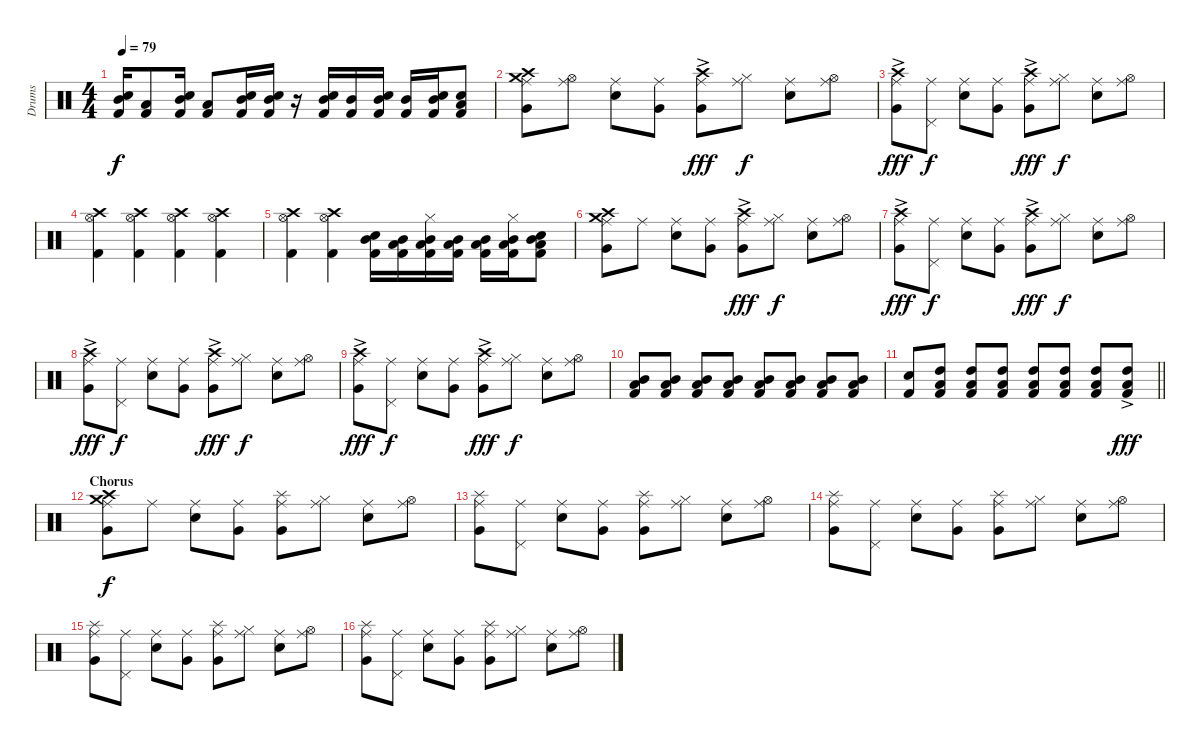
\track ("Drums" "Drums") {instrument percussion}
\staff {score}
\articulation defaults
\ts (4 4)
\tempo 79
\clef neutral
\ks c
("Snare (hit) 2" "Mid Tom (hit)" "Kick (hit) 2").16{dy f} ("Low Tom (hit)" "Kick (hit) 2").8 ("Snare (hit) 2" "Mid Tom (hit)" "Kick (hit) 2").16 ("Low Tom (hit)" "Kick (hit) 2").8 ("Snare (hit) 2" "Mid Tom (hit)" "Kick (hit) 2").16 ("Snare (hit) 2" "Mid Tom (hit)" "Kick (hit) 2").16 r.16 ("Snare (hit) 2" "Mid Tom (hit)" "Kick (hit) 2").16 ("Mid Tom (hit)" "Kick (hit) 2").16 ("Snare (hit) 2" "Mid Tom (hit)" "Kick (hit) 2").16 ("Mid Tom (hit)" "Kick (hit) 2").16 ("Snare (hit) 2" "Mid Tom (hit)" "Kick (hit) 2").16 ("Snare (hit) 2" "Low Tom (hit)" "Kick (hit) 2").8 |
("Crash medium (hit)" "Crash high (hit)" "Very Low Tom (hit)" "Ride (middle)").8 ("Hi-Hat (open)" "Ride (middle)").8 ("Snare (hit) 2" "Ride (middle)").8 ("Very Low Tom (hit)" "Ride (middle)").8 ("Crash high (hit)"{ac} "Very Low Tom (hit)" "Ride (middle)").8{dy fff} ("Hi-Hat (closed)" "Ride (middle)").8{dy f} ("Snare (hit) 2" "Ride (middle)").8 ("Hi-Hat (open)" "Ride (middle)").8 |
("Crash high (hit)"{ac} "Very Low Tom (hit)" "Ride (middle)").8{dy fff} ("Pedal Hi-Hat (hit)" "Ride (middle)").8{dy f} ("Snare (hit) 2" "Ride (middle)").8 ("Very Low Tom (hit)" "Ride (middle)").8 ("Crash high (hit)"{ac} "Very Low Tom (hit)" "Ride (middle)").8{dy fff} ("Hi-Hat (closed)" "Ride (middle)").8{dy f} ("Snare (hit) 2" "Ride (middle)").8 ("Hi-Hat (open)" "Ride (middle)").8 |
("Crash high (hit)" "Hi-Hat (open)" "Kick (hit) 2").4 ("Crash high (hit)" "Hi-Hat (open)" "Kick (hit) 2").4 ("Crash high (hit)" "Hi-Hat (open)" "Kick (hit) 2").4 ("Crash high (hit)" "Hi-Hat (open)" "Kick (hit) 2").4 |
("Crash high (hit)" "Hi-Hat (open)" "Kick (hit) 2").4 ("Crash high (hit)" "Hi-Hat (open)" "Kick (hit) 2").4 ("Snare (hit) 2" "Mid Tom (hit)" "Kick (hit) 2").16 ("Low Tom (hit)" "Mid Tom (hit)" "Kick (hit) 2").16 ("Hi-Hat (closed)" "Low Tom (hit)" "Mid Tom (hit)" "Kick (hit) 2").16 ("Low Tom (hit)" "Mid Tom (hit)" "Kick (hit) 2").16 ("Low Tom (hit)" "Mid Tom (hit)" "Kick (hit) 2").16 ("Hi-Hat (closed)" "Low Tom (hit)" "Mid Tom (hit)" "Kick (hit) 2").16 ("Snare (hit) 2" "Low Tom (hit)" "Mid Tom (hit)" "Kick (hit) 2").8 |
("Crash medium (hit)" "Crash high (hit)" "Very Low Tom (hit)" "Ride (middle)").8 "Ride (middle)".8 ("Snare (hit) 2" "Ride (middle)").8 ("Very Low Tom (hit)" "Ride (middle)").8 ("Crash high (hit)"{ac} "Very Low Tom (hit)" "Ride (middle)").8{dy fff} ("Hi-Hat (closed)" "Ride (middle)").8{dy f} ("Snare (hit) 2" "Ride (middle)").8 ("Hi-Hat (open)" "Ride (middle)").8 |
("Crash high (hit)"{ac} "Very Low Tom (hit)" "Ride (middle)").8{dy fff} ("Pedal Hi-Hat (hit)" "Ride (middle)").8{dy f} ("Snare (hit) 2" "Ride (middle)").8 ("Very Low Tom (hit)" "Ride (middle)").8 ("Crash high (hit)"{ac} "Very Low Tom (hit)" "Ride (middle)").8{dy fff} ("Hi-Hat (closed)" "Ride (middle)").8{dy f} ("Snare (hit) 2" "Ride (middle)").8 ("Hi-Hat (open)" "Ride (middle)").8 |
("Crash high (hit)"{ac} "Very Low Tom (hit)" "Ride (middle)").8{dy fff} ("Pedal Hi-Hat (hit)" "Ride (middle)").8{dy f} ("Snare (hit) 2" "Ride (middle)").8 ("Very Low Tom (hit)" "Ride (middle)").8 ("Crash high (hit)"{ac} "Very Low Tom (hit)" "Ride (middle)").8{dy fff} ("Hi-Hat (closed)" "Ride (middle)").8{dy f} ("Snare (hit) 2" "Ride (middle)").8 ("Hi-Hat (open)" "Ride (middle)").8 |
("Crash high (hit)"{ac} "Very Low Tom (hit)" "Ride (middle)").8{dy fff} ("Pedal Hi-Hat (hit)" "Ride (middle)").8{dy f} ("Snare (hit) 2" "Ride (middle)").8 ("Very Low Tom (hit)" "Ride (middle)").8 ("Crash high (hit)"{ac} "Very Low Tom (hit)" "Ride (middle)").8{dy fff} ("Hi-Hat (closed)" "Ride (middle)").8{dy f} ("Snare (hit) 2" "Ride (middle)").8 ("Hi-Hat (open)" "Ride (middle)").8 |
("Low Tom (hit)" "Mid Tom (hit)" "Kick (hit) 2").8 ("Low Tom (hit)" "Mid Tom (hit)" "Kick (hit) 2").8 ("Low Tom (hit)" "Mid Tom (hit)" "Kick (hit) 2").8 ("Low Tom (hit)" "Mid Tom (hit)" "Kick (hit) 2").8 ("Low Tom (hit)" "Mid Tom (hit)" "Kick (hit) 2").8 ("Low Tom (hit)" "Mid Tom (hit)" "Kick (hit) 2").8 ("Low Tom (hit)" "Mid Tom (hit)" "Kick (hit) 2").8 ("Low Tom (hit)" "Mid Tom (hit)" "Kick (hit) 2").8 |
\barLineRight lightlight
("Kick (hit) 2" "Snare (hit) 2").8 ("High Tom (hit)" "Kick (hit) 2" "Low Tom (hit)").8 ("High Tom (hit)" "Kick (hit) 2" "Low Tom (hit)").8 ("High Tom (hit)" "Kick (hit) 2" "Low Tom (hit)").8 ("High Tom (hit)" "Kick (hit) 2" "Low Tom (hit)").8 ("High Tom (hit)" "Kick (hit) 2" "Low Tom (hit)").8 ("High Tom (hit)" "Kick (hit) 2" "Low Tom (hit)").8 ("High Tom (hit)"{ac} "Kick (hit) 2"{ac} "Low Tom (hit)"{ac}).8{dy fff} |
\section ("" "Chorus")
("Crash medium (hit)" "Crash high (hit)" "Very Low Tom (hit)" "Ride (middle)").8{dy f} "Ride (middle)".8 ("Snare (hit) 2" "Ride (middle)").8 ("Very Low Tom (hit)" "Ride (middle)").8 ("Splash (hit)" "Very Low Tom (hit)" "Ride (middle)").8 ("Hi-Hat (closed)" "Ride (middle)").8 ("Snare (hit) 2" "Ride (middle)").8 ("Hi-Hat (open)" "Ride (middle)").8 |
("Splash (hit)" "Very Low Tom (hit)" "Ride (middle)").8 ("Pedal Hi-Hat (hit)" "Ride (middle)").8 ("Snare (hit) 2" "Ride (middle)").8 ("Very Low Tom (hit)" "Ride (middle)").8 ("Splash (hit)" "Very Low Tom (hit)" "Ride (middle)").8 ("Hi-Hat (closed)" "Ride (middle)").8 ("Snare (hit) 2" "Ride (middle)").8 ("Hi-Hat (open)" "Ride (middle)").8 |
("Splash (hit)" "Very Low Tom (hit)" "Ride (middle)").8 ("Pedal Hi-Hat (hit)" "Ride (middle)").8 ("Snare (hit) 2" "Ride (middle)").8 ("Very Low Tom (hit)" "Ride (middle)").8 ("Splash (hit)" "Very Low Tom (hit)" "Ride (middle)").8 ("Hi-Hat (closed)" "Ride (middle)").8 ("Snare (hit) 2" "Ride (middle)").8 ("Hi-Hat (open)" "Ride (middle)").8 |
("Splash (hit)" "Very Low Tom (hit)" "Ride (middle)").8 ("Pedal Hi-Hat (hit)" "Ride (middle)").8 ("Snare (hit) 2" "Ride (middle)").8 ("Very Low Tom (hit)" "Ride (middle)").8 ("Splash (hit)" "Very Low Tom (hit)" "Ride (middle)").8 ("Hi-Hat (closed)" "Ride (middle)").8 ("Snare (hit) 2" "Ride (middle)").8 ("Hi-Hat (open)" "Ride (middle)").8 |
("Splash (hit)" "Very Low Tom (hit)" "Ride (middle)").8 ("Pedal Hi-Hat (hit)" "Ride (middle)").8 ("Snare (hit) 2" "Ride (middle)").8 ("Very Low Tom (hit)" "Ride (middle)").8 ("Splash (hit)" "Very Low Tom (hit)" "Ride (middle)").8 ("Hi-Hat (closed)" "Ride (middle)").8 ("Snare (hit) 2" "Ride (middle)").8 ("Hi-Hat (open)" "Ride (middle)").8
